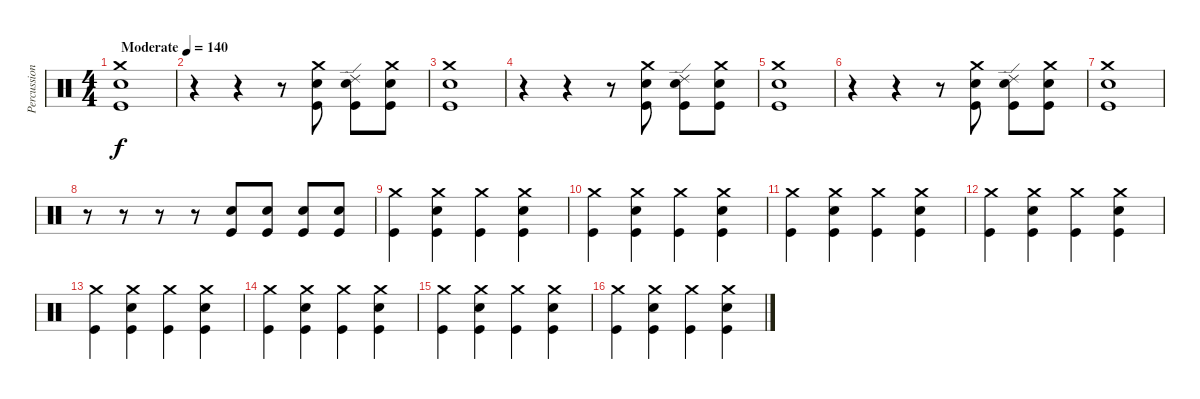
\track ("Percussion" "Percussion") {instrument percussion}
\staff {score}
\articulation defaults
\ts (4 4)
\tempo (140 "Moderate")
\clef neutral
\ks c
("Crash medium (hit)" "Electric Snare (hit)" "Kick (hit)").1{dy f} |
r.4 r.4 r.8 ("Kick (hit)" "Electric Snare (hit)" "Crash medium (hit)").8 ("Kick (hit)" "Electric Snare (hit)" "Ride (edge) 2").8 ("Kick (hit)" "Electric Snare (hit)" "Crash medium (hit)").8 |
("Crash medium (hit)" "Electric Snare (hit)" "Kick (hit)").1 |
r.4 r.4 r.8 ("Kick (hit)" "Electric Snare (hit)" "Crash medium (hit)").8 ("Kick (hit)" "Electric Snare (hit)" "Ride (edge) 2").8 ("Kick (hit)" "Electric Snare (hit)" "Crash medium (hit)").8 |
("Crash medium (hit)" "Electric Snare (hit)" "Kick (hit)").1 |
r.4 r.4 r.8 ("Kick (hit)" "Electric Snare (hit)" "Crash medium (hit)").8 ("Kick (hit)" "Electric Snare (hit)" "Ride (edge) 2").8 ("Kick (hit)" "Electric Snare (hit)" "Crash medium (hit)").8 |
("Crash medium (hit)" "Electric Snare (hit)" "Kick (hit)").1 |
r.8 r.8 r.8 r.8 ("Kick (hit)" "Electric Snare (hit)").8 ("Kick (hit)" "Electric Snare (hit)").8 ("Kick (hit)" "Electric Snare (hit)").8 ("Kick (hit)" "Electric Snare (hit)").8 |
("Kick (hit)" "Crash medium (hit)").4 ("Kick (hit)" "Electric Snare (hit)" "Crash medium (hit)").4 ("Kick (hit)" "Crash medium (hit)").4 ("Kick (hit)" "Electric Snare (hit)" "Crash medium (hit)").4 |
("Kick (hit)" "Crash medium (hit)").4 ("Kick (hit)" "Electric Snare (hit)" "Crash medium (hit)").4 ("Kick (hit)" "Crash medium (hit)").4 ("Kick (hit)" "Electric Snare (hit)" "Crash medium (hit)").4 |
("Kick (hit)" "Crash medium (hit)").4 ("Kick (hit)" "Electric Snare (hit)" "Crash medium (hit)").4 ("Kick (hit)" "Crash medium (hit)").4 ("Kick (hit)" "Electric Snare (hit)" "Crash medium (hit)").4 |
("Kick (hit)" "Crash medium (hit)").4 ("Kick (hit)" "Electric Snare (hit)" "Crash medium (hit)").4 ("Kick (hit)" "Crash medium (hit)").4 ("Kick (hit)" "Electric Snare (hit)" "Crash medium (hit)").4 |
("Kick (hit)" "Crash medium (hit)").4 ("Kick (hit)" "Electric Snare (hit)" "Crash medium (hit)").4 ("Kick (hit)" "Crash medium (hit)").4 ("Kick (hit)" "Electric Snare (hit)" "Crash medium (hit)").4 |
("Kick (hit)" "Crash medium (hit)").4 ("Kick (hit)" "Electric Snare (hit)" "Crash medium (hit)").4 ("Kick (hit)" "Crash medium (hit)").4 ("Kick (hit)" "Electric Snare (hit)" "Crash medium (hit)").4 |
("Kick (hit)" "Crash medium (hit)").4 ("Kick (hit)" "Electric Snare (hit)" "Crash medium (hit)").4 ("Kick (hit)" "Crash medium (hit)").4 ("Kick (hit)" "Electric Snare (hit)" "Crash medium (hit)").4 |
("Kick (hit)" "Crash medium (hit)").4 ("Kick (hit)" "Electric Snare (hit)" "Crash medium (hit)").4 ("Kick (hit)" "Crash medium (hit)").4 ("Kick (hit)" "Electric Snare (hit)" "Crash medium (hit)").4
